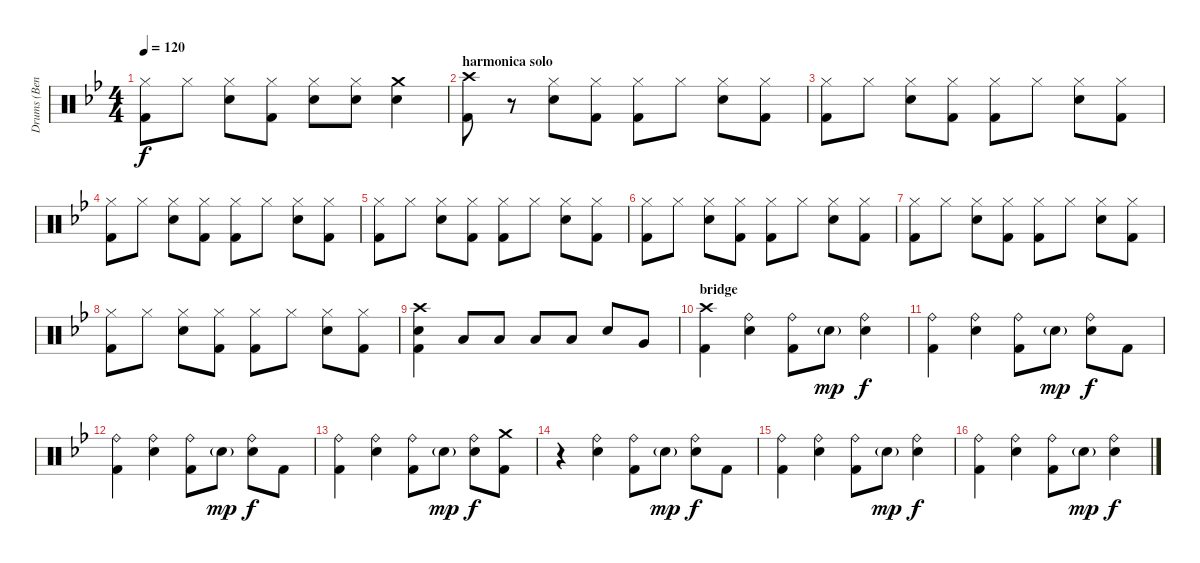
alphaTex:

\track ("Drums (Bengerg)" "Drums (Ben") {instrument percussion}
\staff {score}
\articulation defaults
\ts (4 4)
\tempo 120
\clef neutral
\ks bb
("Hi-Hat (closed)" "Kick (hit) 2").8{dy f} "Hi-Hat (closed)".8 ("Hi-Hat (closed)" "Electric Snare (hit)").8 ("Hi-Hat (closed)" "Kick (hit) 2").8 ("Hi-Hat (closed)" "Electric Snare (hit)").8 ("Hi-Hat (closed)" "Electric Snare (hit)").8 ("Crash medium (hit)" "Electric Snare (hit)").4 |
\section ("" "harmonica solo")
("Crash high (hit)" "Kick (hit) 2").8 r.8 ("Hi-Hat (closed)" "Electric Snare (hit)").8 ("Hi-Hat (closed)" "Kick (hit) 2").8 ("Hi-Hat (closed)" "Kick (hit) 2").8 "Hi-Hat (closed)".8 ("Hi-Hat (closed)" "Electric Snare (hit)").8 ("Hi-Hat (closed)" "Kick (hit) 2").8 |
("Hi-Hat (closed)" "Kick (hit) 2").8 "Hi-Hat (closed)".8 ("Hi-Hat (closed)" "Electric Snare (hit)").8 ("Hi-Hat (closed)" "Kick (hit) 2").8 ("Hi-Hat (closed)" "Kick (hit) 2").8 "Hi-Hat (closed)".8 ("Hi-Hat (closed)" "Electric Snare (hit)").8 ("Hi-Hat (closed)" "Kick (hit) 2").8 |
("Hi-Hat (closed)" "Kick (hit) 2").8 "Hi-Hat (closed)".8 ("Hi-Hat (closed)" "Electric Snare (hit)").8 ("Hi-Hat (closed)" "Kick (hit) 2").8 ("Hi-Hat (closed)" "Kick (hit) 2").8 "Hi-Hat (closed)".8 ("Hi-Hat (closed)" "Electric Snare (hit)").8 ("Hi-Hat (closed)" "Kick (hit) 2").8 |
("Hi-Hat (closed)" "Kick (hit) 2").8 "Hi-Hat (closed)".8 ("Hi-Hat (closed)" "Electric Snare (hit)").8 ("Hi-Hat (closed)" "Kick (hit) 2").8 ("Hi-Hat (closed)" "Kick (hit) 2").8 "Hi-Hat (closed)".8 ("Hi-Hat (closed)" "Electric Snare (hit)").8 ("Hi-Hat (closed)" "Kick (hit) 2").8 |
("Hi-Hat (closed)" "Kick (hit) 2").8 "Hi-Hat (closed)".8 ("Hi-Hat (closed)" "Electric Snare (hit)").8 ("Hi-Hat (closed)" "Kick (hit) 2").8 ("Hi-Hat (closed)" "Kick (hit) 2").8 "Hi-Hat (closed)".8 ("Hi-Hat (closed)" "Electric Snare (hit)").8 ("Hi-Hat (closed)" "Kick (hit) 2").8 |
("Hi-Hat (closed)" "Kick (hit) 2").8 "Hi-Hat (closed)".8 ("Hi-Hat (closed)" "Electric Snare (hit)").8 ("Hi-Hat (closed)" "Kick (hit) 2").8 ("Hi-Hat (closed)" "Kick (hit) 2").8 "Hi-Hat (closed)".8 ("Hi-Hat (closed)" "Electric Snare (hit)").8 ("Hi-Hat (closed)" "Kick (hit) 2").8 |
("Hi-Hat (closed)" "Kick (hit) 2").8 "Hi-Hat (closed)".8 ("Hi-Hat (closed)" "Electric Snare (hit)").8 ("Hi-Hat (closed)" "Kick (hit) 2").8 ("Hi-Hat (closed)" "Kick (hit) 2").8 "Hi-Hat (closed)".8 ("Hi-Hat (closed)" "Electric Snare (hit)").8 ("Hi-Hat (closed)" "Kick (hit) 2").8 |
("Crash high (hit)" "Electric Snare (hit)" "Kick (hit) 2").4 "Low Tom (hit)".8 "Low Tom (hit)".8 "Low Tom (hit)".8 "Low Tom (hit)".8 "Electric Snare (hit)".8 "Very Low Tom (hit)".8 |
\section ("" "bridge")
("Crash high (hit)" "Kick (hit) 2").4 ("Ride (bell)" "Electric Snare (hit)").4 ("Ride (bell)" "Kick (hit) 2").8 "Electric Snare (hit)"{g}.8{dy mp} ("Ride (bell)" "Electric Snare (hit)").4{dy f} |
("Ride (bell)" "Kick (hit) 2").4 ("Ride (bell)" "Electric Snare (hit)").4 ("Ride (bell)" "Kick (hit) 2").8 "Electric Snare (hit)"{g}.8{dy mp} ("Ride (bell)" "Electric Snare (hit)").8{dy f} "Kick (hit) 2".8 |
("Ride (bell)" "Kick (hit) 2").4 ("Ride (bell)" "Electric Snare (hit)").4 ("Ride (bell)" "Kick (hit) 2").8 "Electric Snare (hit)"{g}.8{dy mp} ("Ride (bell)" "Electric Snare (hit)").8{dy f} "Kick (hit) 2".8 |
("Ride (bell)" "Kick (hit) 2").4 ("Ride (bell)" "Electric Snare (hit)").4 ("Ride (bell)" "Kick (hit) 2").8 "Electric Snare (hit)"{g}.8{dy mp} ("Ride (bell)" "Electric Snare (hit)").8{dy f} ("Crash medium (hit)" "Kick (hit) 2").8 |
r.4 ("Ride (bell)" "Electric Snare (hit)").4 ("Ride (bell)" "Kick (hit) 2").8 "Electric Snare (hit)"{g}.8{dy mp} ("Ride (bell)" "Electric Snare (hit)").8{dy f} "Kick (hit) 2".8 |
("Ride (bell)" "Kick (hit) 2").4 ("Ride (bell)" "Electric Snare (hit)").4 ("Ride (bell)" "Kick (hit) 2").8 "Electric Snare (hit)"{g}.8{dy mp} ("Ride (bell)" "Electric Snare (hit)").4{dy f} |
("Ride (bell)" "Kick (hit) 2").4 ("Ride (bell)" "Electric Snare (hit)").4 ("Ride (bell)" "Kick (hit) 2").8 "Electric Snare (hit)"{g}.8{dy mp} ("Ride (bell)" "Electric Snare (hit)").4{dy f}
